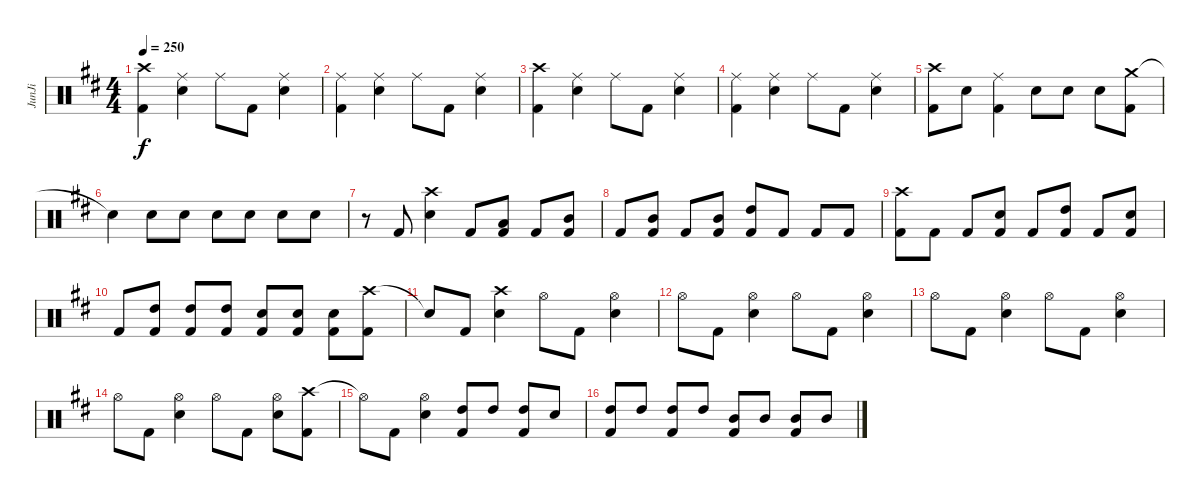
\track ("JunJi" "JunJi") {instrument percussion}
\staff {score}
\articulation defaults
\ts (4 4)
\tempo 250
\clef neutral
\ks d
("Crash high (hit)" "Kick (hit) 2").4{dy f} ("Ride (middle)" "Snare (hit) 2").4 "Ride (middle)".8 "Kick (hit) 2".8 ("Ride (middle)" "Snare (hit) 2").4 |
("Ride (middle)" "Kick (hit) 2").4 ("Ride (middle)" "Snare (hit) 2").4 "Ride (middle)".8 "Kick (hit) 2".8 ("Ride (middle)" "Snare (hit) 2").4 |
("Crash high (hit)" "Kick (hit) 2").4 ("Ride (middle)" "Snare (hit) 2").4 "Ride (middle)".8 "Kick (hit) 2".8 ("Ride (middle)" "Snare (hit) 2").4 |
("Ride (middle)" "Kick (hit) 2").4 ("Ride (middle)" "Snare (hit) 2").4 "Ride (middle)".8 "Kick (hit) 2".8 ("Ride (middle)" "Snare (hit) 2").4 |
("Crash high (hit)" "Kick (hit) 2").8 "Snare (hit) 2".8 ("Ride (middle)" "Kick (hit) 2").4 "Snare (hit) 2".8 "Snare (hit) 2".8 "Snare (hit) 2".8 ("Crash medium (hit)" "Kick (hit) 2").8 |
"Snare (hit)"{t}.4 "Snare (hit) 2".8 "Snare (hit) 2".8 "Snare (hit) 2".8 "Snare (hit) 2".8 "Snare (hit) 2".8 "Snare (hit) 2".8 |
r.8 "Kick (hit) 2".8 ("Crash high (hit)" "Snare (hit) 2").4 "Kick (hit) 2".8 ("Low Tom (hit)" "Kick (hit) 2").8 "Kick (hit) 2".8 ("Mid Tom (hit)" "Kick (hit) 2").8 |
"Kick (hit) 2".8 ("Mid Tom (hit)" "Kick (hit) 2").8 "Kick (hit) 2".8 ("Mid Tom (hit)" "Kick (hit) 2").8 ("High Tom (hit)" "Kick (hit) 2").8 "Kick (hit) 2".8 "Kick (hit) 2".8 "Kick (hit) 2".8 |
("Crash high (hit)" "Kick (hit) 2").8 "Kick (hit) 2".8 "Kick (hit) 2".8 ("Snare (hit) 2" "Kick (hit) 2").8 "Kick (hit) 2".8 ("High Tom (hit)" "Kick (hit) 2").8 "Kick (hit) 2".8 ("Snare (hit) 2" "Kick (hit) 2").8 |
"Kick (hit) 2".8 ("High Tom (hit)" "Kick (hit) 2").8 ("High Tom (hit)" "Kick (hit) 2").8 ("High Tom (hit)" "Kick (hit) 2").8 ("Snare (hit) 2" "Kick (hit) 2").8 ("Snare (hit) 2" "Kick (hit) 2").8 ("Snare (hit) 2" "Kick (hit) 2").8 ("Crash high (hit)" "Kick (hit) 2").8 |
"Snare (hit)"{t}.8 "Kick (hit) 2".8 ("Crash high (hit)" "Snare (hit) 2").4 "Hi-Hat (open)".8 "Kick (hit) 2".8 ("Hi-Hat (open)" "Snare (hit) 2").4 |
"Hi-Hat (open)".8 "Kick (hit) 2".8 ("Hi-Hat (open)" "Snare (hit) 2").4 "Hi-Hat (open)".8 "Kick (hit) 2".8 ("Hi-Hat (open)" "Snare (hit) 2").4 |
"Hi-Hat (open)".8 "Kick (hit) 2".8 ("Hi-Hat (open)" "Snare (hit) 2").4 "Hi-Hat (open)".8 "Kick (hit) 2".8 ("Hi-Hat (open)" "Snare (hit) 2").4 |
"Hi-Hat (open)".8 "Kick (hit) 2".8 ("Hi-Hat (open)" "Snare (hit) 2").4 "Hi-Hat (open)".8 "Kick (hit) 2".8 ("Hi-Hat (open)" "Snare (hit) 2").8 ("Crash high (hit)" "Kick (hit) 2").8 |
"Hi-Hat (open)"{t}.8 "Kick (hit) 2".8 ("Hi-Hat (open)" "Snare (hit) 2").4 ("High Tom (hit)" "Kick (hit) 2").8 "High Tom (hit)".8 ("High Tom (hit)" "Kick (hit) 2").8 "Snare (hit) 2".8 |
("High Tom (hit)" "Kick (hit) 2").8 "High Tom (hit)".8 ("High Tom (hit)" "Kick (hit) 2").8 "High Tom (hit)".8 ("Mid Tom (hit)" "Kick (hit) 2").8 "Mid Tom (hit)".8 ("Mid Tom (hit)" "Kick (hit) 2").8 "Mid Tom (hit)".8
